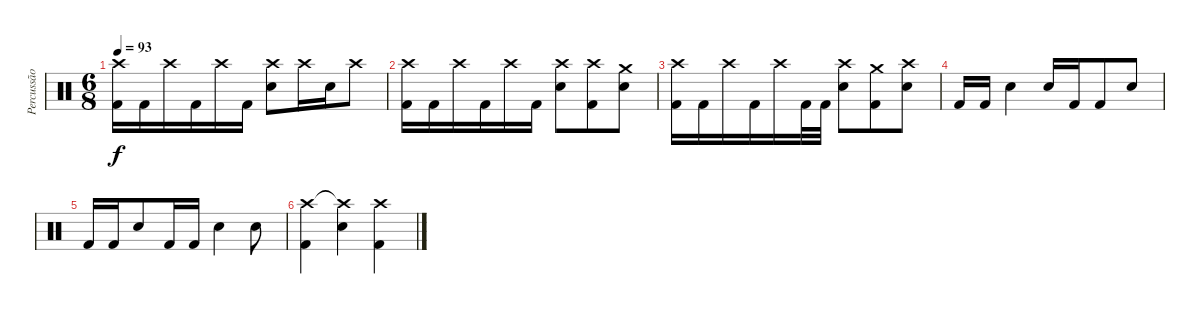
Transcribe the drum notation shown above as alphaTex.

\track ("Percussão" "Percussão") {instrument percussion}
\staff {score}
\articulation defaults
\ts (6 8)
\tempo 93
\clef neutral
\ks c
("Crash high (hit)" "Kick (hit) 2").16{dy f} "Kick (hit) 2".16 "Crash high (hit)".16 "Kick (hit) 2".16 "Crash high (hit)".16 "Kick (hit) 2".16 ("Crash high (hit)" "Snare (hit) 2").8 "Crash high (hit)".16 "Snare (hit) 2".16 "Crash high (hit)".8 |
("Crash high (hit)" "Kick (hit) 2").16 "Kick (hit) 2".16 "Crash high (hit)".16 "Kick (hit) 2".16 "Crash high (hit)".16 "Kick (hit) 2".16 ("Crash high (hit)" "Snare (hit) 2").8 ("Crash high (hit)" "Kick (hit) 2").8 ("Crash medium (hit)" "Snare (hit) 2").8 |
("Crash high (hit)" "Kick (hit) 2").16 "Kick (hit) 2".16 "Crash high (hit)".16 "Kick (hit) 2".16 "Crash high (hit)".16 "Kick (hit) 2".32 "Kick (hit) 2".32 ("Crash high (hit)" "Snare (hit) 2").8 ("Crash medium (hit)" "Kick (hit) 2").8 ("Snare (hit) 2" "Crash high (hit)").8 |
"Kick (hit) 2".16 "Kick (hit) 2".16 "Snare (hit) 2".4 "Snare (hit) 2".16 "Kick (hit) 2".16 "Kick (hit) 2".8 "Snare (hit) 2".8 |
"Kick (hit) 2".16 "Kick (hit) 2".16 "Snare (hit) 2".8 "Kick (hit) 2".16 "Kick (hit) 2".16 "Snare (hit) 2".4 "Snare (hit) 2".8 |
("Crash high (hit)" "Kick (hit) 2").4 ("Crash high (hit)"{t} "Snare (hit) 2").4 ("Crash high (hit)" "Kick (hit) 2").4
